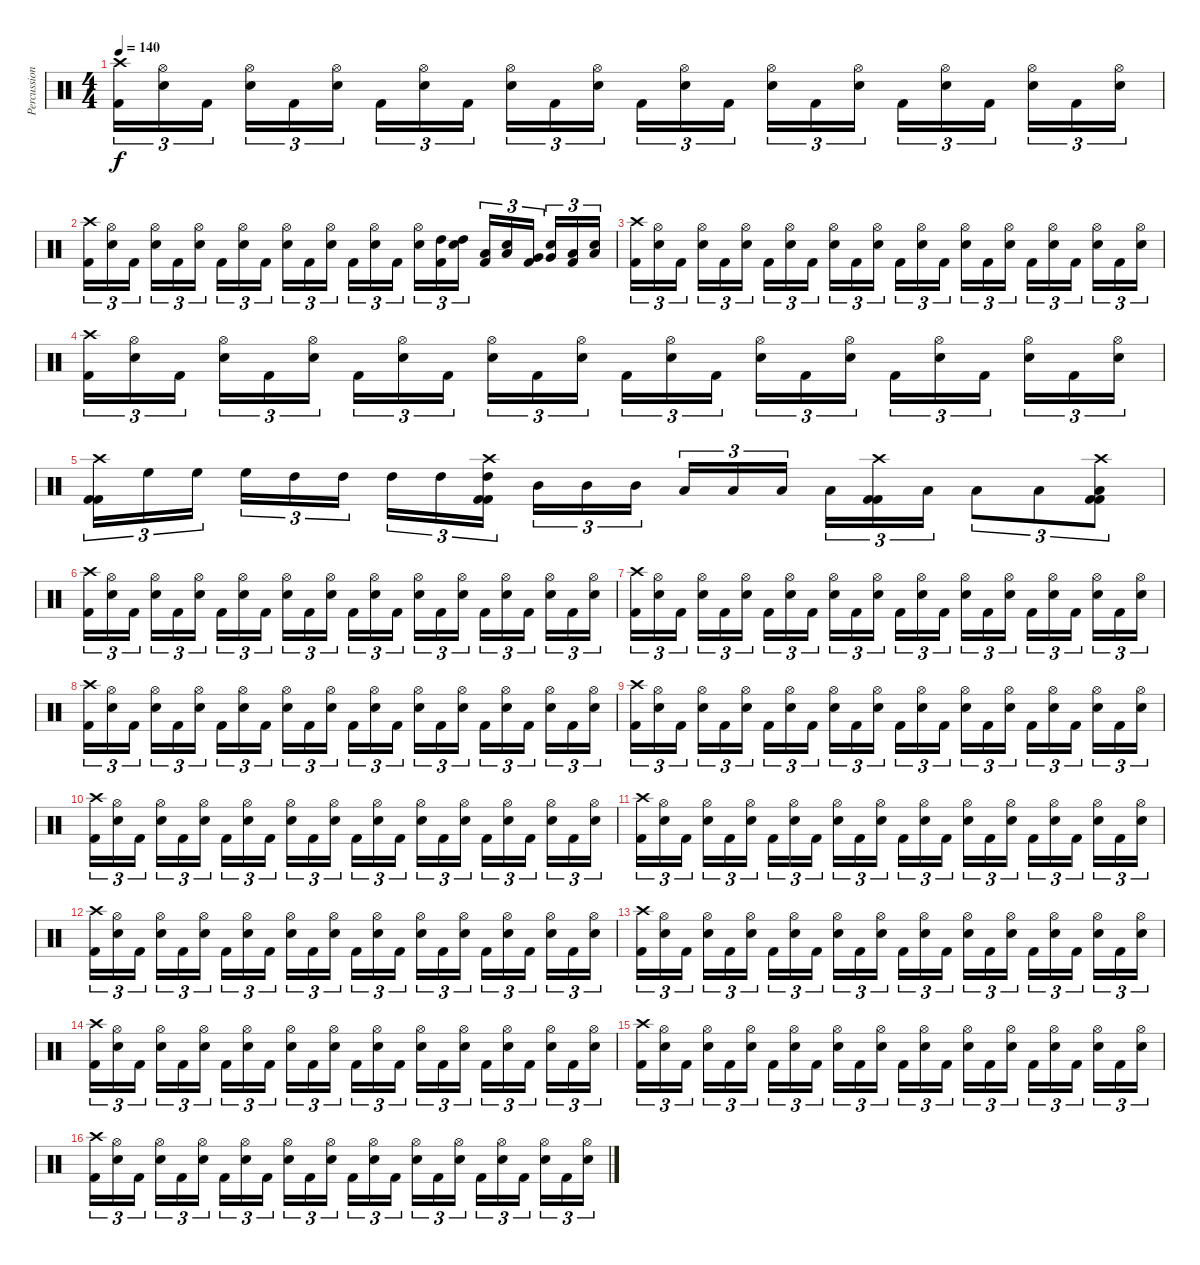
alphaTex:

\track ("Percussion" "Percussion") {instrument percussion}
\staff {score}
\articulation defaults
\ts (4 4)
\tempo 140
\clef neutral
\ks c
("Crash high (hit)" "Kick (hit) 2").16{tu (3 2) dy f} ("Hi-Hat (open)" "Snare (hit) 2").16{tu (3 2)} "Kick (hit) 2".16{tu (3 2)} ("Hi-Hat (open)" "Snare (hit) 2").16{tu (3 2)} "Kick (hit) 2".16{tu (3 2)} ("Hi-Hat (open)" "Snare (hit) 2").16{tu (3 2)} "Kick (hit) 2".16{tu (3 2)} ("Hi-Hat (open)" "Snare (hit) 2").16{tu (3 2)} "Kick (hit) 2".16{tu (3 2)} ("Hi-Hat (open)" "Snare (hit) 2").16{tu (3 2)} "Kick (hit) 2".16{tu (3 2)} ("Hi-Hat (open)" "Snare (hit) 2").16{tu (3 2)} "Kick (hit) 2".16{tu (3 2)} ("Hi-Hat (open)" "Snare (hit) 2").16{tu (3 2)} "Kick (hit) 2".16{tu (3 2)} ("Hi-Hat (open)" "Snare (hit) 2").16{tu (3 2)} "Kick (hit) 2".16{tu (3 2)} ("Hi-Hat (open)" "Snare (hit) 2").16{tu (3 2)} "Kick (hit) 2".16{tu (3 2)} ("Hi-Hat (open)" "Snare (hit) 2").16{tu (3 2)} "Kick (hit) 2".16{tu (3 2)} ("Hi-Hat (open)" "Snare (hit) 2").16{tu (3 2)} "Kick (hit) 2".16{tu (3 2)} ("Hi-Hat (open)" "Snare (hit) 2").16{tu (3 2)} |
("Crash high (hit)" "Kick (hit) 2").16{tu (3 2)} ("Hi-Hat (open)" "Snare (hit) 2").16{tu (3 2)} "Kick (hit) 2".16{tu (3 2)} ("Hi-Hat (open)" "Snare (hit) 2").16{tu (3 2)} "Kick (hit) 2".16{tu (3 2)} ("Hi-Hat (open)" "Snare (hit) 2").16{tu (3 2)} "Kick (hit) 2".16{tu (3 2)} ("Hi-Hat (open)" "Snare (hit) 2").16{tu (3 2)} "Kick (hit) 2".16{tu (3 2)} ("Hi-Hat (open)" "Snare (hit) 2").16{tu (3 2)} "Kick (hit) 2".16{tu (3 2)} ("Hi-Hat (open)" "Snare (hit) 2").16{tu (3 2)} "Kick (hit) 2".16{tu (3 2)} ("Hi-Hat (open)" "Snare (hit) 2").16{tu (3 2)} "Kick (hit) 2".16{tu (3 2)} ("Hi-Hat (open)" "Snare (hit) 2").16{tu (3 2)} ("High Tom (hit)" "Kick (hit) 2").16{tu (3 2)} ("High Tom (hit)" "Snare (hit) 2").16{tu (3 2)} ("Low Tom (hit)" "Kick (hit) 2").16{tu (3 2)} ("Low Tom (hit)" "Snare (hit) 2").16{tu (3 2)} ("Very Low Tom (hit)" "Kick (hit) 2").16{tu (3 2)} ("Very Low Tom (hit)" "Snare (hit) 2").16{tu (3 2)} ("Low Floor Tom (hit)" "Kick (hit) 2").16{tu (3 2)} ("Low Floor Tom (hit)" "Snare (hit) 2").16{tu (3 2)} |
("Crash high (hit)" "Kick (hit) 2").16{tu (3 2)} ("Hi-Hat (open)" "Snare (hit) 2").16{tu (3 2)} "Kick (hit) 2".16{tu (3 2)} ("Hi-Hat (open)" "Snare (hit) 2").16{tu (3 2)} "Kick (hit) 2".16{tu (3 2)} ("Hi-Hat (open)" "Snare (hit) 2").16{tu (3 2)} "Kick (hit) 2".16{tu (3 2)} ("Hi-Hat (open)" "Snare (hit) 2").16{tu (3 2)} "Kick (hit) 2".16{tu (3 2)} ("Hi-Hat (open)" "Snare (hit) 2").16{tu (3 2)} "Kick (hit) 2".16{tu (3 2)} ("Hi-Hat (open)" "Snare (hit) 2").16{tu (3 2)} "Kick (hit) 2".16{tu (3 2)} ("Hi-Hat (open)" "Snare (hit) 2").16{tu (3 2)} "Kick (hit) 2".16{tu (3 2)} ("Hi-Hat (open)" "Snare (hit) 2").16{tu (3 2)} "Kick (hit) 2".16{tu (3 2)} ("Hi-Hat (open)" "Snare (hit) 2").16{tu (3 2)} "Kick (hit) 2".16{tu (3 2)} ("Hi-Hat (open)" "Snare (hit) 2").16{tu (3 2)} "Kick (hit) 2".16{tu (3 2)} ("Hi-Hat (open)" "Snare (hit) 2").16{tu (3 2)} "Kick (hit) 2".16{tu (3 2)} ("Hi-Hat (open)" "Snare (hit) 2").16{tu (3 2)} |
("Crash high (hit)" "Kick (hit) 2").16{tu (3 2)} ("Hi-Hat (open)" "Snare (hit) 2").16{tu (3 2)} "Kick (hit) 2".16{tu (3 2)} ("Hi-Hat (open)" "Snare (hit) 2").16{tu (3 2)} "Kick (hit) 2".16{tu (3 2)} ("Hi-Hat (open)" "Snare (hit) 2").16{tu (3 2)} "Kick (hit) 2".16{tu (3 2)} ("Hi-Hat (open)" "Snare (hit) 2").16{tu (3 2)} "Kick (hit) 2".16{tu (3 2)} ("Hi-Hat (open)" "Snare (hit) 2").16{tu (3 2)} "Kick (hit) 2".16{tu (3 2)} ("Hi-Hat (open)" "Snare (hit) 2").16{tu (3 2)} "Kick (hit) 2".16{tu (3 2)} ("Hi-Hat (open)" "Snare (hit) 2").16{tu (3 2)} "Kick (hit) 2".16{tu (3 2)} ("Hi-Hat (open)" "Snare (hit) 2").16{tu (3 2)} "Kick (hit) 2".16{tu (3 2)} ("Hi-Hat (open)" "Snare (hit) 2").16{tu (3 2)} "Kick (hit) 2".16{tu (3 2)} ("Hi-Hat (open)" "Snare (hit) 2").16{tu (3 2)} "Kick (hit) 2".16{tu (3 2)} ("Hi-Hat (open)" "Snare (hit) 2").16{tu (3 2)} "Kick (hit) 2".16{tu (3 2)} ("Hi-Hat (open)" "Snare (hit) 2").16{tu (3 2)} |
("Crash high (hit)" "Kick (hit) 2" "Kick (hit) 2").16{tu (3 2)} "High Floor Tom (hit)".16{tu (3 2)} "High Floor Tom (hit)".16{tu (3 2)} "High Floor Tom (hit)".16{tu (3 2)} "High Tom (hit)".16{tu (3 2)} "High Tom (hit)".16{tu (3 2)} "High Tom (hit)".16{tu (3 2)} "High Tom (hit)".16{tu (3 2)} ("Crash high (hit)" "High Tom (hit)" "Kick (hit) 2" "Kick (hit) 2").16{tu (3 2)} "Mid Tom (hit)".16{tu (3 2)} "Mid Tom (hit)".16{tu (3 2)} "Mid Tom (hit)".16{tu (3 2)} "Low Tom (hit)".16{tu (3 2)} "Low Tom (hit)".16{tu (3 2)} "Low Tom (hit)".16{tu (3 2)} "Low Tom (hit)".16{tu (3 2)} ("Crash high (hit)" "Kick (hit) 2" "Kick (hit) 2").16{tu (3 2)} "Low Tom (hit)".16{tu (3 2)} "Low Floor Tom (hit)".8{tu (3 2)} "Low Floor Tom (hit)".8{tu (3 2)} ("Crash high (hit)" "Low Floor Tom (hit)" "Kick (hit) 2" "Kick (hit) 2").8{tu (3 2)} |
("Crash high (hit)" "Kick (hit) 2").16{tu (3 2)} ("Hi-Hat (open)" "Snare (hit) 2").16{tu (3 2)} "Kick (hit) 2".16{tu (3 2)} ("Hi-Hat (open)" "Snare (hit) 2").16{tu (3 2)} "Kick (hit) 2".16{tu (3 2)} ("Hi-Hat (open)" "Snare (hit) 2").16{tu (3 2)} "Kick (hit) 2".16{tu (3 2)} ("Hi-Hat (open)" "Snare (hit) 2").16{tu (3 2)} "Kick (hit) 2".16{tu (3 2)} ("Hi-Hat (open)" "Snare (hit) 2").16{tu (3 2)} "Kick (hit) 2".16{tu (3 2)} ("Hi-Hat (open)" "Snare (hit) 2").16{tu (3 2)} "Kick (hit) 2".16{tu (3 2)} ("Hi-Hat (open)" "Snare (hit) 2").16{tu (3 2)} "Kick (hit) 2".16{tu (3 2)} ("Hi-Hat (open)" "Snare (hit) 2").16{tu (3 2)} "Kick (hit) 2".16{tu (3 2)} ("Hi-Hat (open)" "Snare (hit) 2").16{tu (3 2)} "Kick (hit) 2".16{tu (3 2)} ("Hi-Hat (open)" "Snare (hit) 2").16{tu (3 2)} "Kick (hit) 2".16{tu (3 2)} ("Hi-Hat (open)" "Snare (hit) 2").16{tu (3 2)} "Kick (hit) 2".16{tu (3 2)} ("Hi-Hat (open)" "Snare (hit) 2").16{tu (3 2)} |
("Crash high (hit)" "Kick (hit) 2").16{tu (3 2)} ("Hi-Hat (open)" "Snare (hit) 2").16{tu (3 2)} "Kick (hit) 2".16{tu (3 2)} ("Hi-Hat (open)" "Snare (hit) 2").16{tu (3 2)} "Kick (hit) 2".16{tu (3 2)} ("Hi-Hat (open)" "Snare (hit) 2").16{tu (3 2)} "Kick (hit) 2".16{tu (3 2)} ("Hi-Hat (open)" "Snare (hit) 2").16{tu (3 2)} "Kick (hit) 2".16{tu (3 2)} ("Hi-Hat (open)" "Snare (hit) 2").16{tu (3 2)} "Kick (hit) 2".16{tu (3 2)} ("Hi-Hat (open)" "Snare (hit) 2").16{tu (3 2)} "Kick (hit) 2".16{tu (3 2)} ("Hi-Hat (open)" "Snare (hit) 2").16{tu (3 2)} "Kick (hit) 2".16{tu (3 2)} ("Hi-Hat (open)" "Snare (hit) 2").16{tu (3 2)} "Kick (hit) 2".16{tu (3 2)} ("Hi-Hat (open)" "Snare (hit) 2").16{tu (3 2)} "Kick (hit) 2".16{tu (3 2)} ("Hi-Hat (open)" "Snare (hit) 2").16{tu (3 2)} "Kick (hit) 2".16{tu (3 2)} ("Hi-Hat (open)" "Snare (hit) 2").16{tu (3 2)} "Kick (hit) 2".16{tu (3 2)} ("Hi-Hat (open)" "Snare (hit) 2").16{tu (3 2)} |
("Crash high (hit)" "Kick (hit) 2").16{tu (3 2)} ("Hi-Hat (open)" "Snare (hit) 2").16{tu (3 2)} "Kick (hit) 2".16{tu (3 2)} ("Hi-Hat (open)" "Snare (hit) 2").16{tu (3 2)} "Kick (hit) 2".16{tu (3 2)} ("Hi-Hat (open)" "Snare (hit) 2").16{tu (3 2)} "Kick (hit) 2".16{tu (3 2)} ("Hi-Hat (open)" "Snare (hit) 2").16{tu (3 2)} "Kick (hit) 2".16{tu (3 2)} ("Hi-Hat (open)" "Snare (hit) 2").16{tu (3 2)} "Kick (hit) 2".16{tu (3 2)} ("Hi-Hat (open)" "Snare (hit) 2").16{tu (3 2)} "Kick (hit) 2".16{tu (3 2)} ("Hi-Hat (open)" "Snare (hit) 2").16{tu (3 2)} "Kick (hit) 2".16{tu (3 2)} ("Hi-Hat (open)" "Snare (hit) 2").16{tu (3 2)} "Kick (hit) 2".16{tu (3 2)} ("Hi-Hat (open)" "Snare (hit) 2").16{tu (3 2)} "Kick (hit) 2".16{tu (3 2)} ("Hi-Hat (open)" "Snare (hit) 2").16{tu (3 2)} "Kick (hit) 2".16{tu (3 2)} ("Hi-Hat (open)" "Snare (hit) 2").16{tu (3 2)} "Kick (hit) 2".16{tu (3 2)} ("Hi-Hat (open)" "Snare (hit) 2").16{tu (3 2)} |
("Crash high (hit)" "Kick (hit) 2").16{tu (3 2)} ("Hi-Hat (open)" "Snare (hit) 2").16{tu (3 2)} "Kick (hit) 2".16{tu (3 2)} ("Hi-Hat (open)" "Snare (hit) 2").16{tu (3 2)} "Kick (hit) 2".16{tu (3 2)} ("Hi-Hat (open)" "Snare (hit) 2").16{tu (3 2)} "Kick (hit) 2".16{tu (3 2)} ("Hi-Hat (open)" "Snare (hit) 2").16{tu (3 2)} "Kick (hit) 2".16{tu (3 2)} ("Hi-Hat (open)" "Snare (hit) 2").16{tu (3 2)} "Kick (hit) 2".16{tu (3 2)} ("Hi-Hat (open)" "Snare (hit) 2").16{tu (3 2)} "Kick (hit) 2".16{tu (3 2)} ("Hi-Hat (open)" "Snare (hit) 2").16{tu (3 2)} "Kick (hit) 2".16{tu (3 2)} ("Hi-Hat (open)" "Snare (hit) 2").16{tu (3 2)} "Kick (hit) 2".16{tu (3 2)} ("Hi-Hat (open)" "Snare (hit) 2").16{tu (3 2)} "Kick (hit) 2".16{tu (3 2)} ("Hi-Hat (open)" "Snare (hit) 2").16{tu (3 2)} "Kick (hit) 2".16{tu (3 2)} ("Hi-Hat (open)" "Snare (hit) 2").16{tu (3 2)} "Kick (hit) 2".16{tu (3 2)} ("Hi-Hat (open)" "Snare (hit) 2").16{tu (3 2)} |
("Crash high (hit)" "Kick (hit) 2").16{tu (3 2)} ("Hi-Hat (open)" "Snare (hit) 2").16{tu (3 2)} "Kick (hit) 2".16{tu (3 2)} ("Hi-Hat (open)" "Snare (hit) 2").16{tu (3 2)} "Kick (hit) 2".16{tu (3 2)} ("Hi-Hat (open)" "Snare (hit) 2").16{tu (3 2)} "Kick (hit) 2".16{tu (3 2)} ("Hi-Hat (open)" "Snare (hit) 2").16{tu (3 2)} "Kick (hit) 2".16{tu (3 2)} ("Hi-Hat (open)" "Snare (hit) 2").16{tu (3 2)} "Kick (hit) 2".16{tu (3 2)} ("Hi-Hat (open)" "Snare (hit) 2").16{tu (3 2)} "Kick (hit) 2".16{tu (3 2)} ("Hi-Hat (open)" "Snare (hit) 2").16{tu (3 2)} "Kick (hit) 2".16{tu (3 2)} ("Hi-Hat (open)" "Snare (hit) 2").16{tu (3 2)} "Kick (hit) 2".16{tu (3 2)} ("Hi-Hat (open)" "Snare (hit) 2").16{tu (3 2)} "Kick (hit) 2".16{tu (3 2)} ("Hi-Hat (open)" "Snare (hit) 2").16{tu (3 2)} "Kick (hit) 2".16{tu (3 2)} ("Hi-Hat (open)" "Snare (hit) 2").16{tu (3 2)} "Kick (hit) 2".16{tu (3 2)} ("Hi-Hat (open)" "Snare (hit) 2").16{tu (3 2)} |
("Crash high (hit)" "Kick (hit) 2").16{tu (3 2)} ("Hi-Hat (open)" "Snare (hit) 2").16{tu (3 2)} "Kick (hit) 2".16{tu (3 2)} ("Hi-Hat (open)" "Snare (hit) 2").16{tu (3 2)} "Kick (hit) 2".16{tu (3 2)} ("Hi-Hat (open)" "Snare (hit) 2").16{tu (3 2)} "Kick (hit) 2".16{tu (3 2)} ("Hi-Hat (open)" "Snare (hit) 2").16{tu (3 2)} "Kick (hit) 2".16{tu (3 2)} ("Hi-Hat (open)" "Snare (hit) 2").16{tu (3 2)} "Kick (hit) 2".16{tu (3 2)} ("Hi-Hat (open)" "Snare (hit) 2").16{tu (3 2)} "Kick (hit) 2".16{tu (3 2)} ("Hi-Hat (open)" "Snare (hit) 2").16{tu (3 2)} "Kick (hit) 2".16{tu (3 2)} ("Hi-Hat (open)" "Snare (hit) 2").16{tu (3 2)} "Kick (hit) 2".16{tu (3 2)} ("Hi-Hat (open)" "Snare (hit) 2").16{tu (3 2)} "Kick (hit) 2".16{tu (3 2)} ("Hi-Hat (open)" "Snare (hit) 2").16{tu (3 2)} "Kick (hit) 2".16{tu (3 2)} ("Hi-Hat (open)" "Snare (hit) 2").16{tu (3 2)} "Kick (hit) 2".16{tu (3 2)} ("Hi-Hat (open)" "Snare (hit) 2").16{tu (3 2)} |
("Crash high (hit)" "Kick (hit) 2").16{tu (3 2)} ("Hi-Hat (open)" "Snare (hit) 2").16{tu (3 2)} "Kick (hit) 2".16{tu (3 2)} ("Hi-Hat (open)" "Snare (hit) 2").16{tu (3 2)} "Kick (hit) 2".16{tu (3 2)} ("Hi-Hat (open)" "Snare (hit) 2").16{tu (3 2)} "Kick (hit) 2".16{tu (3 2)} ("Hi-Hat (open)" "Snare (hit) 2").16{tu (3 2)} "Kick (hit) 2".16{tu (3 2)} ("Hi-Hat (open)" "Snare (hit) 2").16{tu (3 2)} "Kick (hit) 2".16{tu (3 2)} ("Hi-Hat (open)" "Snare (hit) 2").16{tu (3 2)} "Kick (hit) 2".16{tu (3 2)} ("Hi-Hat (open)" "Snare (hit) 2").16{tu (3 2)} "Kick (hit) 2".16{tu (3 2)} ("Hi-Hat (open)" "Snare (hit) 2").16{tu (3 2)} "Kick (hit) 2".16{tu (3 2)} ("Hi-Hat (open)" "Snare (hit) 2").16{tu (3 2)} "Kick (hit) 2".16{tu (3 2)} ("Hi-Hat (open)" "Snare (hit) 2").16{tu (3 2)} "Kick (hit) 2".16{tu (3 2)} ("Hi-Hat (open)" "Snare (hit) 2").16{tu (3 2)} "Kick (hit) 2".16{tu (3 2)} ("Hi-Hat (open)" "Snare (hit) 2").16{tu (3 2)} |
("Crash high (hit)" "Kick (hit) 2").16{tu (3 2)} ("Hi-Hat (open)" "Snare (hit) 2").16{tu (3 2)} "Kick (hit) 2".16{tu (3 2)} ("Hi-Hat (open)" "Snare (hit) 2").16{tu (3 2)} "Kick (hit) 2".16{tu (3 2)} ("Hi-Hat (open)" "Snare (hit) 2").16{tu (3 2)} "Kick (hit) 2".16{tu (3 2)} ("Hi-Hat (open)" "Snare (hit) 2").16{tu (3 2)} "Kick (hit) 2".16{tu (3 2)} ("Hi-Hat (open)" "Snare (hit) 2").16{tu (3 2)} "Kick (hit) 2".16{tu (3 2)} ("Hi-Hat (open)" "Snare (hit) 2").16{tu (3 2)} "Kick (hit) 2".16{tu (3 2)} ("Hi-Hat (open)" "Snare (hit) 2").16{tu (3 2)} "Kick (hit) 2".16{tu (3 2)} ("Hi-Hat (open)" "Snare (hit) 2").16{tu (3 2)} "Kick (hit) 2".16{tu (3 2)} ("Hi-Hat (open)" "Snare (hit) 2").16{tu (3 2)} "Kick (hit) 2".16{tu (3 2)} ("Hi-Hat (open)" "Snare (hit) 2").16{tu (3 2)} "Kick (hit) 2".16{tu (3 2)} ("Hi-Hat (open)" "Snare (hit) 2").16{tu (3 2)} "Kick (hit) 2".16{tu (3 2)} ("Hi-Hat (open)" "Snare (hit) 2").16{tu (3 2)} |
("Crash high (hit)" "Kick (hit) 2").16{tu (3 2)} ("Hi-Hat (open)" "Snare (hit) 2").16{tu (3 2)} "Kick (hit) 2".16{tu (3 2)} ("Hi-Hat (open)" "Snare (hit) 2").16{tu (3 2)} "Kick (hit) 2".16{tu (3 2)} ("Hi-Hat (open)" "Snare (hit) 2").16{tu (3 2)} "Kick (hit) 2".16{tu (3 2)} ("Hi-Hat (open)" "Snare (hit) 2").16{tu (3 2)} "Kick (hit) 2".16{tu (3 2)} ("Hi-Hat (open)" "Snare (hit) 2").16{tu (3 2)} "Kick (hit) 2".16{tu (3 2)} ("Hi-Hat (open)" "Snare (hit) 2").16{tu (3 2)} "Kick (hit) 2".16{tu (3 2)} ("Hi-Hat (open)" "Snare (hit) 2").16{tu (3 2)} "Kick (hit) 2".16{tu (3 2)} ("Hi-Hat (open)" "Snare (hit) 2").16{tu (3 2)} "Kick (hit) 2".16{tu (3 2)} ("Hi-Hat (open)" "Snare (hit) 2").16{tu (3 2)} "Kick (hit) 2".16{tu (3 2)} ("Hi-Hat (open)" "Snare (hit) 2").16{tu (3 2)} "Kick (hit) 2".16{tu (3 2)} ("Hi-Hat (open)" "Snare (hit) 2").16{tu (3 2)} "Kick (hit) 2".16{tu (3 2)} ("Hi-Hat (open)" "Snare (hit) 2").16{tu (3 2)} |
("Crash high (hit)" "Kick (hit) 2").16{tu (3 2)} ("Hi-Hat (open)" "Snare (hit) 2").16{tu (3 2)} "Kick (hit) 2".16{tu (3 2)} ("Hi-Hat (open)" "Snare (hit) 2").16{tu (3 2)} "Kick (hit) 2".16{tu (3 2)} ("Hi-Hat (open)" "Snare (hit) 2").16{tu (3 2)} "Kick (hit) 2".16{tu (3 2)} ("Hi-Hat (open)" "Snare (hit) 2").16{tu (3 2)} "Kick (hit) 2".16{tu (3 2)} ("Hi-Hat (open)" "Snare (hit) 2").16{tu (3 2)} "Kick (hit) 2".16{tu (3 2)} ("Hi-Hat (open)" "Snare (hit) 2").16{tu (3 2)} "Kick (hit) 2".16{tu (3 2)} ("Hi-Hat (open)" "Snare (hit) 2").16{tu (3 2)} "Kick (hit) 2".16{tu (3 2)} ("Hi-Hat (open)" "Snare (hit) 2").16{tu (3 2)} "Kick (hit) 2".16{tu (3 2)} ("Hi-Hat (open)" "Snare (hit) 2").16{tu (3 2)} "Kick (hit) 2".16{tu (3 2)} ("Hi-Hat (open)" "Snare (hit) 2").16{tu (3 2)} "Kick (hit) 2".16{tu (3 2)} ("Hi-Hat (open)" "Snare (hit) 2").16{tu (3 2)} "Kick (hit) 2".16{tu (3 2)} ("Hi-Hat (open)" "Snare (hit) 2").16{tu (3 2)} |
("Crash high (hit)" "Kick (hit) 2").16{tu (3 2)} ("Hi-Hat (open)" "Snare (hit) 2").16{tu (3 2)} "Kick (hit) 2".16{tu (3 2)} ("Hi-Hat (open)" "Snare (hit) 2").16{tu (3 2)} "Kick (hit) 2".16{tu (3 2)} ("Hi-Hat (open)" "Snare (hit) 2").16{tu (3 2)} "Kick (hit) 2".16{tu (3 2)} ("Hi-Hat (open)" "Snare (hit) 2").16{tu (3 2)} "Kick (hit) 2".16{tu (3 2)} ("Hi-Hat (open)" "Snare (hit) 2").16{tu (3 2)} "Kick (hit) 2".16{tu (3 2)} ("Hi-Hat (open)" "Snare (hit) 2").16{tu (3 2)} "Kick (hit) 2".16{tu (3 2)} ("Hi-Hat (open)" "Snare (hit) 2").16{tu (3 2)} "Kick (hit) 2".16{tu (3 2)} ("Hi-Hat (open)" "Snare (hit) 2").16{tu (3 2)} "Kick (hit) 2".16{tu (3 2)} ("Hi-Hat (open)" "Snare (hit) 2").16{tu (3 2)} "Kick (hit) 2".16{tu (3 2)} ("Hi-Hat (open)" "Snare (hit) 2").16{tu (3 2)} "Kick (hit) 2".16{tu (3 2)} ("Hi-Hat (open)" "Snare (hit) 2").16{tu (3 2)} "Kick (hit) 2".16{tu (3 2)} ("Hi-Hat (open)" "Snare (hit) 2").16{tu (3 2)}
